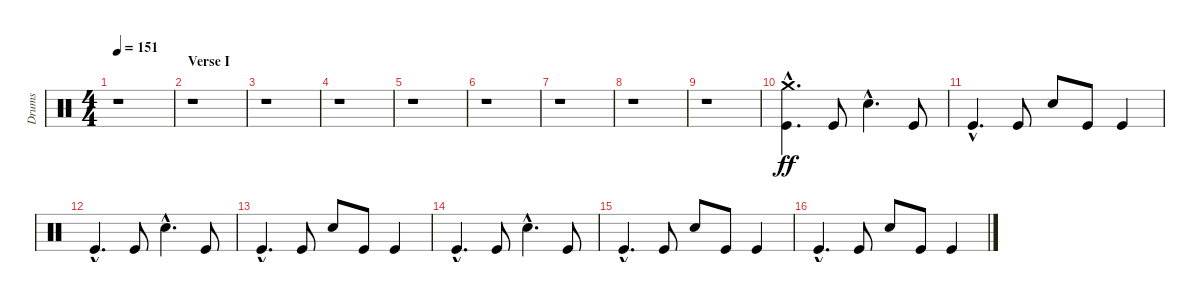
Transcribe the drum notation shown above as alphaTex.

\track ("Drums" "Drums") {instrument percussion}
\staff {score}
\articulation defaults
\ts (4 4)
\tempo 151
\clef neutral
\ks c
r.1{dy ff} |
\section ("" "Verse I")
r.1 |
r.1 |
r.1 |
r.1 |
r.1 |
r.1 |
r.1 |
r.1 |
("Crash medium (hit)"{hac} "Kick (hit)"{hac}).4{d} "Kick (hit)".8 "Snare (hit) 2"{hac}.4{d} "Kick (hit)".8 |
"Kick (hit)"{hac}.4{d} "Kick (hit)".8 "Snare (hit) 2".8 "Kick (hit)".8 "Kick (hit)".4 |
"Kick (hit)"{hac}.4{d} "Kick (hit)".8 "Snare (hit) 2"{hac}.4{d} "Kick (hit)".8 |
"Kick (hit)"{hac}.4{d} "Kick (hit)".8 "Snare (hit) 2".8 "Kick (hit)".8 "Kick (hit)".4 |
"Kick (hit)"{hac}.4{d} "Kick (hit)".8 "Snare (hit) 2"{hac}.4{d} "Kick (hit)".8 |
"Kick (hit)"{hac}.4{d} "Kick (hit)".8 "Snare (hit) 2".8 "Kick (hit)".8 "Kick (hit)".4 |
"Kick (hit)"{hac}.4{d} "Kick (hit)".8 "Snare (hit) 2".8 "Kick (hit)".8 "Kick (hit)".4
